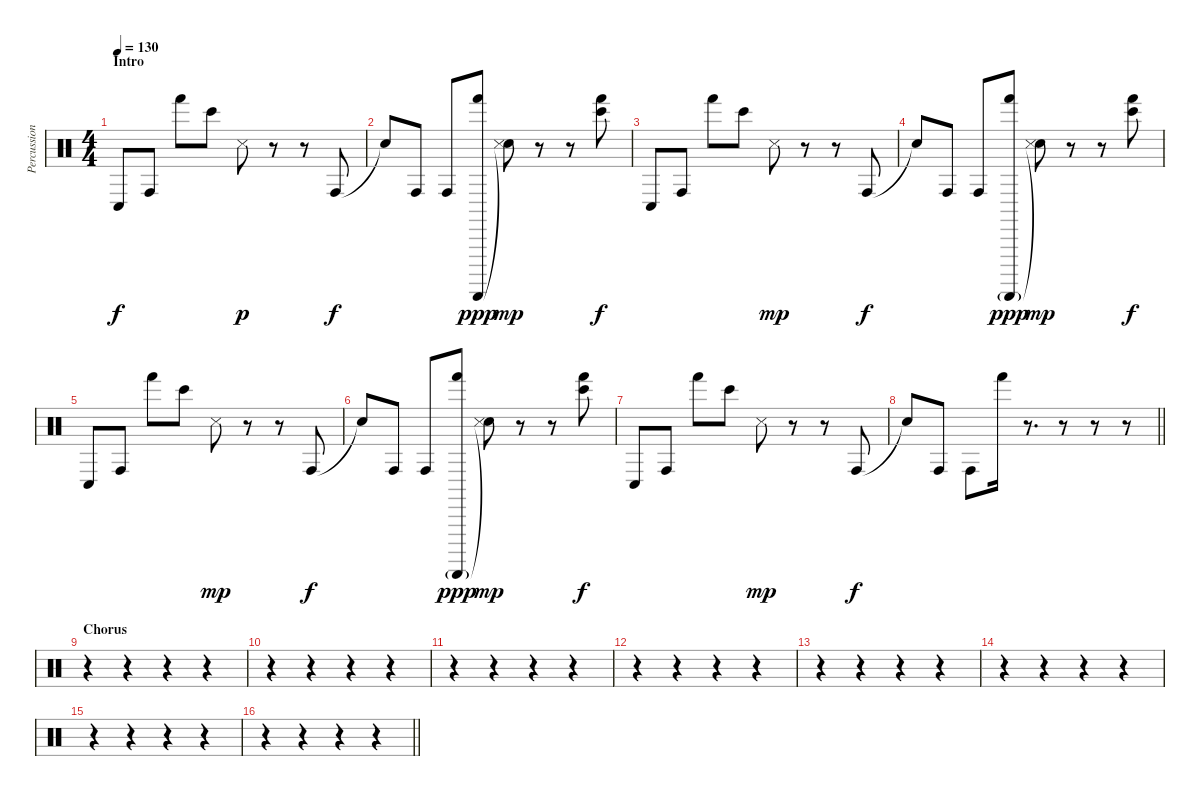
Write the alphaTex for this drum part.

\track ("Percussions (Roger Vasquez)" "Percussion") {instrument percussion}
\staff {score}
\articulation defaults
\ts (4 4)
\section ("" "Intro")
\tempo 130
\clef neutral
\ks c "Conga low (hit)".8{dy f} "Conga high (hit)".8 "Hand (hit)".8 "Bongo High (hit)".8 "Snare (side stick) 3".8{dy p}
r.8 r.8 "Conga high (hit)".8{dy f} |
"Snare (hit)"{t}.8 "Conga high (hit)".8 "Conga high (hit)".8 ("Guiro (scrap-return)" "Hand (hit)").8{dy ppp} ("Snare (hit)"{t} "Snare (side stick) 3").8{dy mp} r.8 r.8 ("Hand (hit)" "Bongo High (hit)").8{dy f} |
"Conga low (hit)".8 "Conga high (hit)".8 "Hand (hit)".8 "Bongo High (hit)".8 "Snare (side stick) 3".8{dy mp} r.8 r.8 "Conga high (hit)".8{dy f} |
"Snare (hit)"{t}.8 "Conga high (hit)".8 "Conga high (hit)".8 ("Guiro (scrap-return)"{g} "Hand (hit)").8{dy ppp} ("Snare (hit)"{t} "Snare (side stick) 3").8{dy mp} r.8 r.8 ("Hand (hit)" "Bongo High (hit)").8{dy f} |
"Conga low (hit)".8 "Conga high (hit)".8 "Hand (hit)".8 "Bongo High (hit)".8 "Snare (side stick) 3".8{dy mp} r.8 r.8 "Conga high (hit)".8{dy f} |
"Snare (hit)"{t}.8 "Conga high (hit)".8 "Conga high (hit)".8 ("Guiro (scrap-return)"{g} "Hand (hit)").8{dy ppp} ("Snare (hit)"{t} "Snare (side stick) 3").8{dy mp} r.8 r.8 ("Hand (hit)" "Bongo High (hit)").8{dy f} |
"Conga low (hit)".8 "Conga high (hit)".8 "Hand (hit)".8 "Bongo High (hit)".8 "Snare (side stick) 3".8{dy mp} r.8 r.8 "Conga high (hit)".8{dy f} |
\barLineRight lightlight "Snare (hit)"{t}.8 "Conga high (hit)".8 "Conga high (hit)".8 "Hand (hit)".16
r.8{d} r.8 r.8 r.8 |
\section ("" "Chorus")
r.4 r.4 r.4 r.4 |
r.4 r.4 r.4 r.4 |
r.4 r.4 r.4 r.4 |
r.4 r.4 r.4 r.4 |
r.4 r.4 r.4 r.4 |
r.4 r.4 r.4 r.4 |
r.4 r.4 r.4 r.4 |
\barLineRight lightlight
r.4 r.4 r.4 r.4
